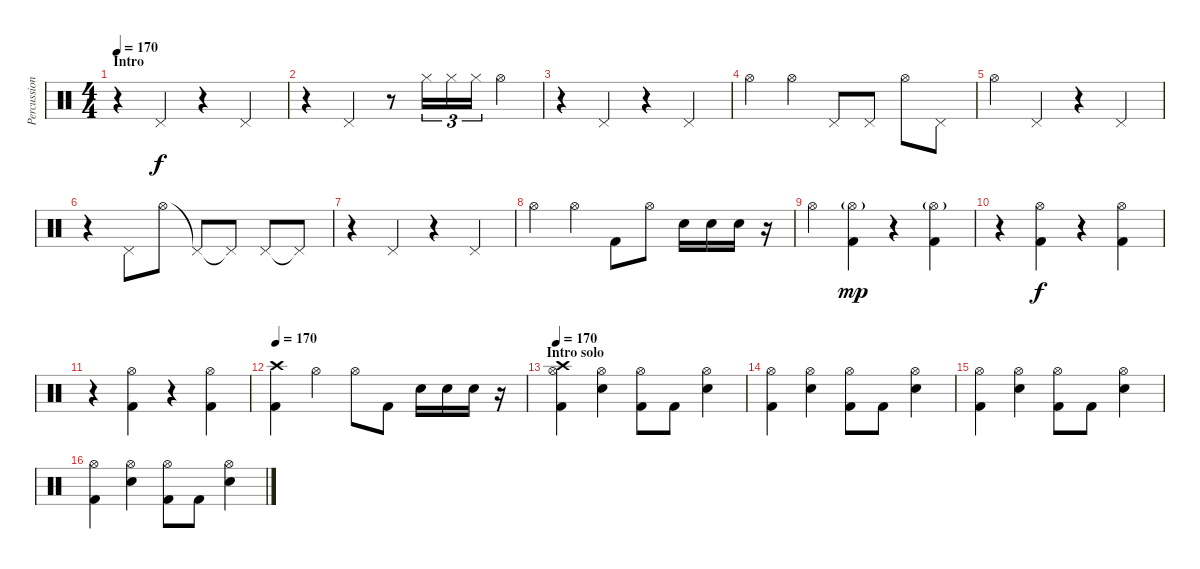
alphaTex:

\track ("Percussion - Who the fuck knows" "Percussion") {instrument percussion}
\staff {score}
\articulation defaults
\ts (4 4)
\section ("" "Intro")
\tempo 170
\tempo 120
\tempo 170
\clef neutral
\ks c
r.4{dy f} "Pedal Hi-Hat (hit)".4 r.4 "Pedal Hi-Hat (hit)".4 |
r.4 "Pedal Hi-Hat (hit)".4 r.8 "Hi-Hat (closed)".16{tu (3 2)} "Hi-Hat (closed)".16{tu (3 2)} "Hi-Hat (closed)".16{tu (3 2)} "Hi-Hat (open)".4 |
r.4 "Pedal Hi-Hat (hit)".4 r.4 "Pedal Hi-Hat (hit)".4 |
"Hi-Hat (open)".4 "Hi-Hat (open)".4 "Pedal Hi-Hat (hit)".8 "Pedal Hi-Hat (hit)".8 "Hi-Hat (open)".8 "Pedal Hi-Hat (hit)".8 |
"Hi-Hat (open)".4 "Pedal Hi-Hat (hit)".4 r.4 "Pedal Hi-Hat (hit)".4 |
r.4 "Pedal Hi-Hat (hit)".8 "Hi-Hat (open)".8 "Pedal Hi-Hat (hit)"{t}.8 "Pedal Hi-Hat (hit)"{t}.8 "Pedal Hi-Hat (hit)".8 "Pedal Hi-Hat (hit)"{t}.8 |
r.4 "Pedal Hi-Hat (hit)".4 r.4 "Pedal Hi-Hat (hit)".4 |
"Hi-Hat (open)".4 "Hi-Hat (open)".4 "Kick (hit) 2".8 "Hi-Hat (open)".8 "Snare (hit) 2".16 "Snare (hit) 2".16 "Snare (hit) 2".16 r.16 |
"Hi-Hat (open)".4 ("Kick (hit) 2" "Hi-Hat (open)"{g}).4{dy mp} r.4 ("Kick (hit) 2" "Hi-Hat (open)"{g}).4 |
r.4 ("Hi-Hat (open)" "Kick (hit) 2").4{dy f} r.4 ("Hi-Hat (open)" "Kick (hit) 2").4 |
r.4 ("Hi-Hat (open)" "Kick (hit) 2").4 r.4 ("Hi-Hat (open)" "Kick (hit) 2").4 |
\tempo 170
("Crash high (hit)" "Kick (hit) 2").4 "Hi-Hat (open)".4 "Hi-Hat (open)".8 "Kick (hit) 2".8 "Snare (hit) 2".16 "Snare (hit) 2".16 "Snare (hit) 2".16 r.16 |
\section ("" "Intro solo")
\tempo 170
("Hi-Hat (open)" "Kick (hit) 2" "Crash high (hit)").4 ("Hi-Hat (open)" "Snare (hit) 2").4 ("Hi-Hat (open)" "Kick (hit) 2").8 "Kick (hit) 2".8 ("Hi-Hat (open)" "Snare (hit) 2").4 |
("Hi-Hat (open)" "Kick (hit) 2").4 ("Hi-Hat (open)" "Snare (hit) 2").4 ("Hi-Hat (open)" "Kick (hit) 2").8 "Kick (hit) 2".8 ("Hi-Hat (open)" "Snare (hit) 2").4 |
("Hi-Hat (open)" "Kick (hit) 2").4 ("Hi-Hat (open)" "Snare (hit) 2").4 ("Hi-Hat (open)" "Kick (hit) 2").8 "Kick (hit) 2".8 ("Hi-Hat (open)" "Snare (hit) 2").4 |
("Hi-Hat (open)" "Kick (hit) 2").4 ("Hi-Hat (open)" "Snare (hit) 2").4 ("Hi-Hat (open)" "Kick (hit) 2").8 "Kick (hit) 2".8 ("Hi-Hat (open)" "Snare (hit) 2").4
